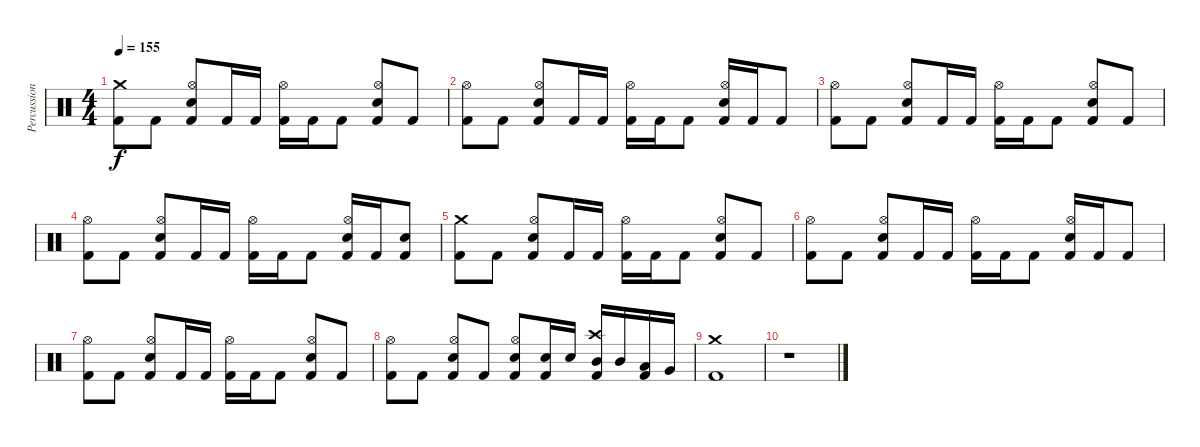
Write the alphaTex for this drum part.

\track ("Percussion" "Percussion") {instrument percussion}
\staff {score}
\articulation defaults
\ts (4 4)
\tempo 155
\clef neutral
\ks c
("Crash medium (hit)" "Kick (hit) 2").8{dy f} "Kick (hit) 2".8 ("Kick (hit) 2" "Hi-Hat (open)" "Snare (hit) 2").8 "Kick (hit) 2".16 "Kick (hit) 2".16 ("Hi-Hat (open)" "Kick (hit) 2").16 "Kick (hit) 2".16 "Kick (hit) 2".8 ("Kick (hit) 2" "Hi-Hat (open)" "Snare (hit) 2").8 "Kick (hit) 2".8 |
("Hi-Hat (open)" "Kick (hit) 2").8 "Kick (hit) 2".8 ("Kick (hit) 2" "Hi-Hat (open)" "Snare (hit) 2").8 "Kick (hit) 2".16 "Kick (hit) 2".16 ("Hi-Hat (open)" "Kick (hit) 2").16 "Kick (hit) 2".16 "Kick (hit) 2".8 ("Kick (hit) 2" "Hi-Hat (open)" "Snare (hit) 2").16 "Kick (hit) 2".16 "Kick (hit) 2".8 |
("Hi-Hat (open)" "Kick (hit) 2").8 "Kick (hit) 2".8 ("Kick (hit) 2" "Hi-Hat (open)" "Snare (hit) 2").8 "Kick (hit) 2".16 "Kick (hit) 2".16 ("Hi-Hat (open)" "Kick (hit) 2").16 "Kick (hit) 2".16 "Kick (hit) 2".8 ("Kick (hit) 2" "Hi-Hat (open)" "Snare (hit) 2").8 "Kick (hit) 2".8 |
("Hi-Hat (open)" "Kick (hit) 2").8 "Kick (hit) 2".8 ("Kick (hit) 2" "Hi-Hat (open)" "Snare (hit) 2").8 "Kick (hit) 2".16 "Kick (hit) 2".16 ("Hi-Hat (open)" "Kick (hit) 2").16 "Kick (hit) 2".16 "Kick (hit) 2".8 ("Kick (hit) 2" "Hi-Hat (open)" "Snare (hit) 2").16 "Kick (hit) 2".16 ("Kick (hit) 2" "Snare (hit) 2").8 |
("Crash medium (hit)" "Kick (hit) 2").8 "Kick (hit) 2".8 ("Kick (hit) 2" "Hi-Hat (open)" "Snare (hit) 2").8 "Kick (hit) 2".16 "Kick (hit) 2".16 ("Hi-Hat (open)" "Kick (hit) 2").16 "Kick (hit) 2".16 "Kick (hit) 2".8 ("Kick (hit) 2" "Hi-Hat (open)" "Snare (hit) 2").8 "Kick (hit) 2".8 |
("Hi-Hat (open)" "Kick (hit) 2").8 "Kick (hit) 2".8 ("Kick (hit) 2" "Hi-Hat (open)" "Snare (hit) 2").8 "Kick (hit) 2".16 "Kick (hit) 2".16 ("Hi-Hat (open)" "Kick (hit) 2").16 "Kick (hit) 2".16 "Kick (hit) 2".8 ("Kick (hit) 2" "Hi-Hat (open)" "Snare (hit) 2").16 "Kick (hit) 2".16 "Kick (hit) 2".8 |
("Hi-Hat (open)" "Kick (hit) 2").8 "Kick (hit) 2".8 ("Kick (hit) 2" "Hi-Hat (open)" "Snare (hit) 2").8 "Kick (hit) 2".16 "Kick (hit) 2".16 ("Hi-Hat (open)" "Kick (hit) 2").16 "Kick (hit) 2".16 "Kick (hit) 2".8 ("Kick (hit) 2" "Hi-Hat (open)" "Snare (hit) 2").8 "Kick (hit) 2".8 |
("Hi-Hat (open)" "Kick (hit) 2").8 "Kick (hit) 2".8 ("Kick (hit) 2" "Hi-Hat (open)" "Snare (hit) 2").8 "Kick (hit) 2".8 ("Kick (hit) 2" "Hi-Hat (open)" "Snare (hit) 2").8 ("Kick (hit) 2" "Snare (hit) 2").16 "Snare (hit) 2".16 ("Kick (hit) 2" "Crash high (hit)" "Mid Tom (hit)").16 "Mid Tom (hit)".16 ("Kick (hit) 2" "Low Tom (hit)").16 "Very Low Tom (hit)".16 |
("Crash medium (hit)" "Kick (hit) 2").1 |
r.1
